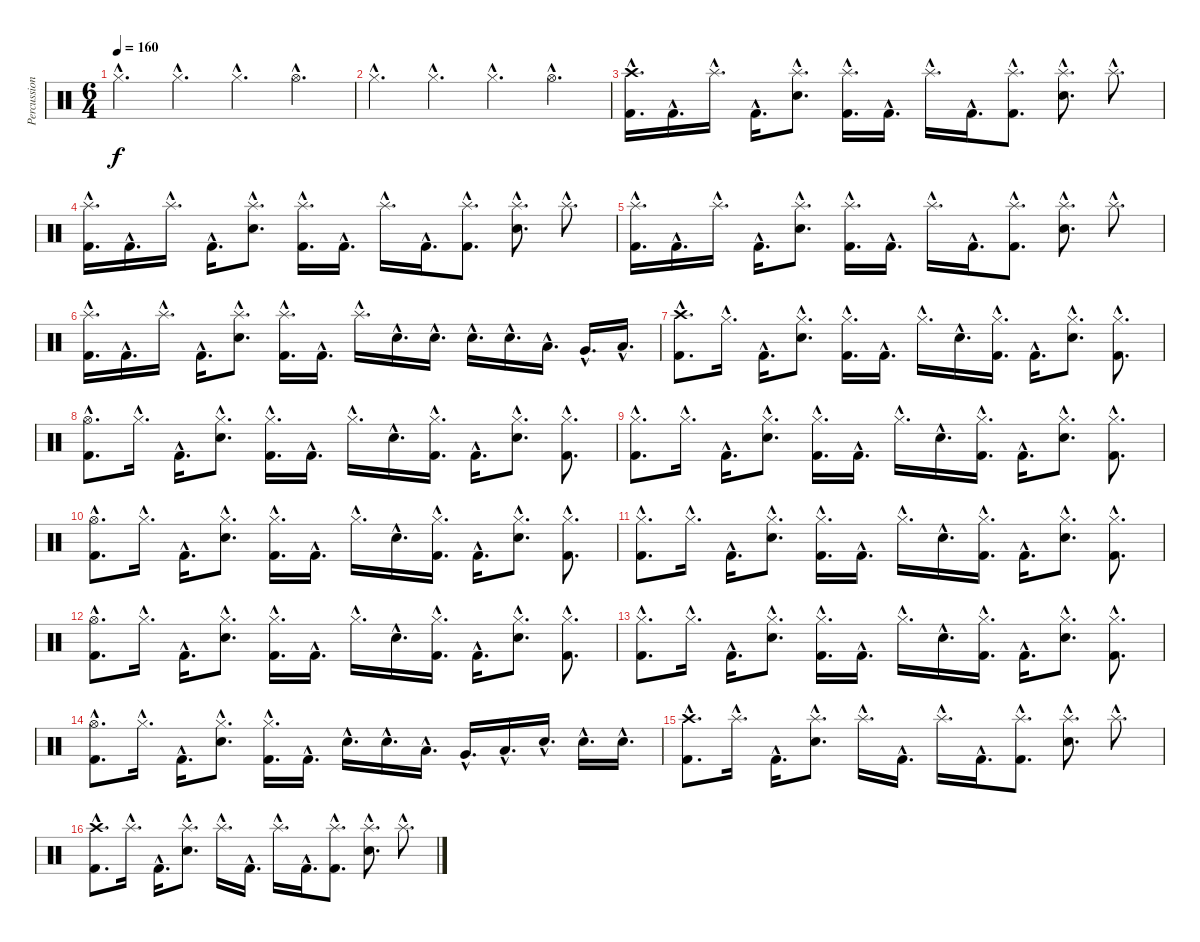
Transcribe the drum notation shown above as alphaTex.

\track ("Percussion" "Percussion") {instrument percussion}
\staff {score}
\articulation defaults
\ts (6 4)
\tempo 160
\clef neutral
\ks c "Hi-Hat (closed)"{hac}.4{d dy f} "Hi-Hat (closed)"{hac}.4{d} "Hi-Hat (closed)"{hac}.4{d} "Hi-Hat (open)"{hac}.4{d}
|
"Hi-Hat (closed)"{hac}.4{d} "Hi-Hat (closed)"{hac}.4{d} "Hi-Hat (closed)"{hac}.4{d} "Hi-Hat (open)"{hac}.4{d} |
("Crash high (hit)"{hac} "Kick (hit) 2"{hac}).16{d} "Kick (hit) 2"{hac}.16{d} "Splash (hit)"{hac}.16{d} "Kick (hit) 2"{hac}.16{d} ("Splash (hit)"{hac} "Electric Snare (hit)"{hac}).8{d} ("Splash (hit)"{hac} "Kick (hit) 2"{hac}).16{d} "Kick (hit) 2"{hac}.16{d} "Splash (hit)"{hac}.16{d} "Kick (hit) 2"{hac}.16{d} ("Splash (hit)"{hac} "Kick (hit) 2"{hac}).8{d} ("Splash (hit)"{hac} "Electric Snare (hit)"{hac}).8{d} "Splash (hit)"{hac}.8{d} |
("Splash (hit)"{hac} "Kick (hit) 2"{hac}).16{d} "Kick (hit) 2"{hac}.16{d} "Splash (hit)"{hac}.16{d} "Kick (hit) 2"{hac}.16{d} ("Splash (hit)"{hac} "Electric Snare (hit)"{hac}).8{d} ("Splash (hit)"{hac} "Kick (hit) 2"{hac}).16{d} "Kick (hit) 2"{hac}.16{d} "Splash (hit)"{hac}.16{d} "Kick (hit) 2"{hac}.16{d} ("Splash (hit)"{hac} "Kick (hit) 2"{hac}).8{d} ("Splash (hit)"{hac} "Electric Snare (hit)"{hac}).8{d} "Splash (hit)"{hac}.8{d} |
("Splash (hit)"{hac} "Kick (hit) 2"{hac}).16{d} "Kick (hit) 2"{hac}.16{d} "Splash (hit)"{hac}.16{d} "Kick (hit) 2"{hac}.16{d} ("Splash (hit)"{hac} "Electric Snare (hit)"{hac}).8{d} ("Splash (hit)"{hac} "Kick (hit) 2"{hac}).16{d} "Kick (hit) 2"{hac}.16{d} "Splash (hit)"{hac}.16{d} "Kick (hit) 2"{hac}.16{d} ("Splash (hit)"{hac} "Kick (hit) 2"{hac}).8{d} ("Splash (hit)"{hac} "Electric Snare (hit)"{hac}).8{d} "Splash (hit)"{hac}.8{d} |
("Splash (hit)"{hac} "Kick (hit) 2"{hac}).16{d} "Kick (hit) 2"{hac}.16{d} "Splash (hit)"{hac}.16{d} "Kick (hit) 2"{hac}.16{d} ("Splash (hit)"{hac} "Electric Snare (hit)"{hac}).8{d} ("Splash (hit)"{hac} "Kick (hit) 2"{hac}).16{d} "Kick (hit) 2"{hac}.16{d} "Splash (hit)"{hac}.16{d} "Electric Snare (hit)"{hac}.16{d} "Electric Snare (hit)"{hac}.16{d} "Electric Snare (hit)"{hac}.16{d} "Electric Snare (hit)"{hac}.16{d} "Low Tom (hit)"{hac}.16{d} "Very Low Tom (hit)"{hac}.16{d} "Low Floor Tom (hit)"{hac}.16{d} |
("Crash high (hit)"{hac} "Kick (hit) 2"{hac}).8{d} "Hi-Hat (closed)"{hac}.16{d} "Kick (hit) 2"{hac}.16{d} ("Hi-Hat (closed)"{hac} "Electric Snare (hit)"{hac}).8{d} ("Hi-Hat (closed)"{hac} "Kick (hit) 2"{hac}).16{d} "Kick (hit) 2"{hac}.16{d} "Hi-Hat (closed)"{hac}.16{d} "Electric Snare (hit)"{hac}.16{d} ("Hi-Hat (closed)"{hac} "Kick (hit) 2"{hac}).16{d} "Kick (hit) 2"{hac}.16{d} ("Hi-Hat (closed)"{hac} "Electric Snare (hit)"{hac}).8{d} ("Hi-Hat (closed)"{hac} "Kick (hit) 2"{hac}).8{d} |
("Hi-Hat (open)"{hac} "Kick (hit) 2"{hac}).8{d} "Hi-Hat (closed)"{hac}.16{d} "Kick (hit) 2"{hac}.16{d} ("Hi-Hat (closed)"{hac} "Electric Snare (hit)"{hac}).8{d} ("Hi-Hat (closed)"{hac} "Kick (hit) 2"{hac}).16{d} "Kick (hit) 2"{hac}.16{d} "Hi-Hat (closed)"{hac}.16{d} "Electric Snare (hit)"{hac}.16{d} ("Hi-Hat (closed)"{hac} "Kick (hit) 2"{hac}).16{d} "Kick (hit) 2"{hac}.16{d} ("Hi-Hat (closed)"{hac} "Electric Snare (hit)"{hac}).8{d} ("Hi-Hat (closed)"{hac} "Kick (hit) 2"{hac}).8{d} |
("Hi-Hat (closed)"{hac} "Kick (hit) 2"{hac}).8{d} "Hi-Hat (closed)"{hac}.16{d} "Kick (hit) 2"{hac}.16{d} ("Hi-Hat (closed)"{hac} "Electric Snare (hit)"{hac}).8{d} ("Hi-Hat (closed)"{hac} "Kick (hit) 2"{hac}).16{d} "Kick (hit) 2"{hac}.16{d} "Hi-Hat (closed)"{hac}.16{d} "Electric Snare (hit)"{hac}.16{d} ("Hi-Hat (closed)"{hac} "Kick (hit) 2"{hac}).16{d} "Kick (hit) 2"{hac}.16{d} ("Hi-Hat (closed)"{hac} "Electric Snare (hit)"{hac}).8{d} ("Hi-Hat (closed)"{hac} "Kick (hit) 2"{hac}).8{d} |
("Hi-Hat (open)"{hac} "Kick (hit) 2"{hac}).8{d} "Hi-Hat (closed)"{hac}.16{d} "Kick (hit) 2"{hac}.16{d} ("Hi-Hat (closed)"{hac} "Electric Snare (hit)"{hac}).8{d} ("Hi-Hat (closed)"{hac} "Kick (hit) 2"{hac}).16{d} "Kick (hit) 2"{hac}.16{d} "Hi-Hat (closed)"{hac}.16{d} "Electric Snare (hit)"{hac}.16{d} ("Hi-Hat (closed)"{hac} "Kick (hit) 2"{hac}).16{d} "Kick (hit) 2"{hac}.16{d} ("Hi-Hat (closed)"{hac} "Electric Snare (hit)"{hac}).8{d} ("Hi-Hat (closed)"{hac} "Kick (hit) 2"{hac}).8{d} |
("Hi-Hat (closed)"{hac} "Kick (hit) 2"{hac}).8{d} "Hi-Hat (closed)"{hac}.16{d} "Kick (hit) 2"{hac}.16{d} ("Hi-Hat (closed)"{hac} "Electric Snare (hit)"{hac}).8{d} ("Hi-Hat (closed)"{hac} "Kick (hit) 2"{hac}).16{d} "Kick (hit) 2"{hac}.16{d} "Hi-Hat (closed)"{hac}.16{d} "Electric Snare (hit)"{hac}.16{d} ("Hi-Hat (closed)"{hac} "Kick (hit) 2"{hac}).16{d} "Kick (hit) 2"{hac}.16{d} ("Hi-Hat (closed)"{hac} "Electric Snare (hit)"{hac}).8{d} ("Hi-Hat (closed)"{hac} "Kick (hit) 2"{hac}).8{d} |
("Hi-Hat (open)"{hac} "Kick (hit) 2"{hac}).8{d} "Hi-Hat (closed)"{hac}.16{d} "Kick (hit) 2"{hac}.16{d} ("Hi-Hat (closed)"{hac} "Electric Snare (hit)"{hac}).8{d} ("Hi-Hat (closed)"{hac} "Kick (hit) 2"{hac}).16{d} "Kick (hit) 2"{hac}.16{d} "Hi-Hat (closed)"{hac}.16{d} "Electric Snare (hit)"{hac}.16{d} ("Hi-Hat (closed)"{hac} "Kick (hit) 2"{hac}).16{d} "Kick (hit) 2"{hac}.16{d} ("Hi-Hat (closed)"{hac} "Electric Snare (hit)"{hac}).8{d} ("Hi-Hat (closed)"{hac} "Kick (hit) 2"{hac}).8{d} |
("Hi-Hat (closed)"{hac} "Kick (hit) 2"{hac}).8{d} "Hi-Hat (closed)"{hac}.16{d} "Kick (hit) 2"{hac}.16{d} ("Hi-Hat (closed)"{hac} "Electric Snare (hit)"{hac}).8{d} ("Hi-Hat (closed)"{hac} "Kick (hit) 2"{hac}).16{d} "Kick (hit) 2"{hac}.16{d} "Hi-Hat (closed)"{hac}.16{d} "Electric Snare (hit)"{hac}.16{d} ("Hi-Hat (closed)"{hac} "Kick (hit) 2"{hac}).16{d} "Kick (hit) 2"{hac}.16{d} ("Hi-Hat (closed)"{hac} "Electric Snare (hit)"{hac}).8{d} ("Hi-Hat (closed)"{hac} "Kick (hit) 2"{hac}).8{d} |
("Hi-Hat (open)"{hac} "Kick (hit) 2"{hac}).8{d} "Hi-Hat (closed)"{hac}.16{d} "Kick (hit) 2"{hac}.16{d} ("Hi-Hat (closed)"{hac} "Electric Snare (hit)"{hac}).8{d} ("Hi-Hat (closed)"{hac} "Kick (hit) 2"{hac}).16{d} "Kick (hit) 2"{hac}.16{d} "Electric Snare (hit)"{hac}.16{d} "Electric Snare (hit)"{hac}.16{d} "Low Tom (hit)"{hac}.16{d} "Very Low Tom (hit)"{hac}.16{d} "Low Floor Tom (hit)"{hac}.16{d} "Electric Snare (hit)"{hac}.16{d} "Electric Snare (hit)"{hac}.16{d} "Electric Snare (hit)"{hac}.16{d} |
("Crash high (hit)"{hac} "Kick (hit) 2"{hac}).8{d} "Splash (hit)"{hac}.16{d} "Kick (hit) 2"{hac}.16{d} ("Splash (hit)"{hac} "Electric Snare (hit)"{hac}).8{d} "Splash (hit)"{hac}.16{d} "Kick (hit) 2"{hac}.16{d} "Splash (hit)"{hac}.16{d} "Kick (hit) 2"{hac}.16{d} ("Splash (hit)"{hac} "Kick (hit) 2"{hac}).8{d} ("Splash (hit)"{hac} "Electric Snare (hit)"{hac}).8{d} "Splash (hit)"{hac}.8{d} |
("Crash high (hit)"{hac} "Kick (hit) 2"{hac}).8{d} "Splash (hit)"{hac}.16{d} "Kick (hit) 2"{hac}.16{d} ("Splash (hit)"{hac} "Electric Snare (hit)"{hac}).8{d} "Splash (hit)"{hac}.16{d} "Kick (hit) 2"{hac}.16{d} "Splash (hit)"{hac}.16{d} "Kick (hit) 2"{hac}.16{d} ("Splash (hit)"{hac} "Kick (hit) 2"{hac}).8{d} ("Splash (hit)"{hac} "Electric Snare (hit)"{hac}).8{d} "Splash (hit)"{hac}.8{d}
